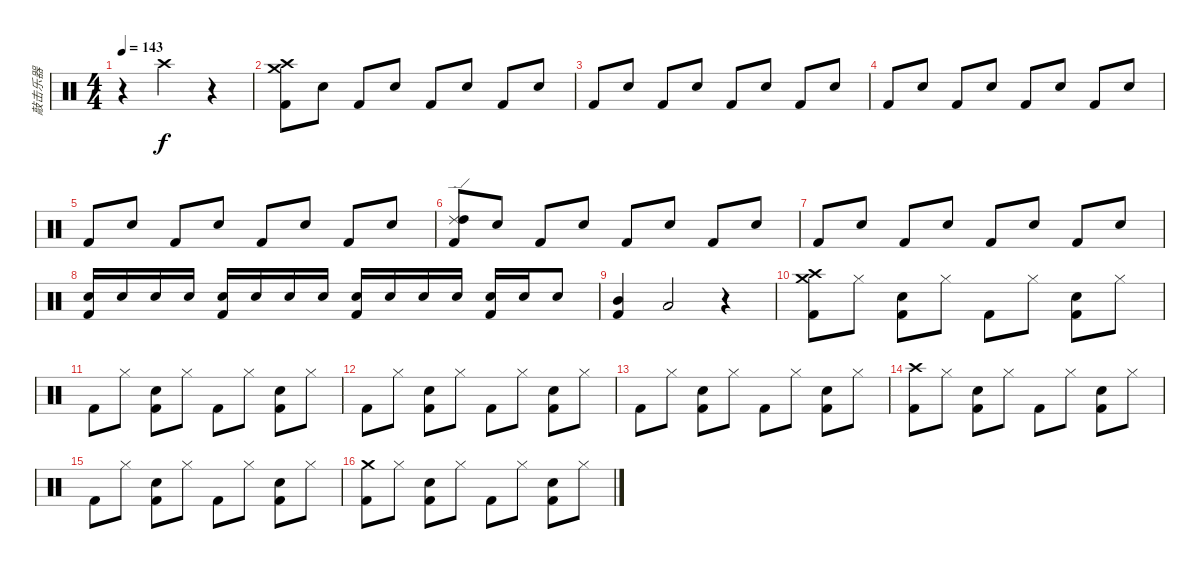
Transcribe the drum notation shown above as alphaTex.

\track ("敲击乐器" "敲击乐器") {instrument percussion}
\staff {score}
\articulation defaults
\ts (4 4)
\tempo 143
\clef neutral
\ks c
r.4{dy f volume 0} "Crash high (hit)".2{volume 13} r.4 |
("Crash high (hit)" "Crash medium (hit)" "Kick (hit) 2").8 "Electric Snare (hit)".8 "Kick (hit) 2".8 "Electric Snare (hit)".8 "Kick (hit) 2".8 "Electric Snare (hit)".8 "Kick (hit) 2".8 "Electric Snare (hit)".8 |
"Kick (hit) 2".8 "Electric Snare (hit)".8 "Kick (hit) 2".8 "Electric Snare (hit)".8 "Kick (hit) 2".8 "Electric Snare (hit)".8 "Kick (hit) 2".8 "Electric Snare (hit)".8 |
"Kick (hit) 2".8 "Electric Snare (hit)".8 "Kick (hit) 2".8 "Electric Snare (hit)".8 "Kick (hit) 2".8 "Electric Snare (hit)".8 "Kick (hit) 2".8 "Electric Snare (hit)".8 |
"Kick (hit) 2".8 "Electric Snare (hit)".8 "Kick (hit) 2".8 "Electric Snare (hit)".8 "Kick (hit) 2".8 "Electric Snare (hit)".8 "Kick (hit) 2".8 "Electric Snare (hit)".8 |
("Ride (edge) 2" "High Tom (hit)" "Kick (hit) 2").8 "Electric Snare (hit)".8 "Kick (hit) 2".8 "Electric Snare (hit)".8 "Kick (hit) 2".8 "Electric Snare (hit)".8 "Kick (hit) 2".8 "Electric Snare (hit)".8 |
"Kick (hit) 2".8 "Electric Snare (hit)".8 "Kick (hit) 2".8 "Electric Snare (hit)".8 "Kick (hit) 2".8 "Electric Snare (hit)".8 "Kick (hit) 2".8 "Electric Snare (hit)".8 |
("Electric Snare (hit)" "Kick (hit) 2").16 "Electric Snare (hit)".16 "Electric Snare (hit)".16 "Electric Snare (hit)".16 ("Electric Snare (hit)" "Kick (hit) 2").16 "Electric Snare (hit)".16 "Electric Snare (hit)".16 "Electric Snare (hit)".16 ("Electric Snare (hit)" "Kick (hit) 2").16 "Electric Snare (hit)".16 "Electric Snare (hit)".16 "Electric Snare (hit)".16 ("Electric Snare (hit)" "Kick (hit) 2").16 "Electric Snare (hit)".16 "Electric Snare (hit)".8 |
("Mid Tom (hit)" "Kick (hit) 2").4 "Low Floor Tom (hit)".2 r.4 |
("Crash high (hit)" "Crash medium (hit)" "Kick (hit) 2").8 "Hi-Hat (closed)".8 ("Electric Snare (hit)" "Kick (hit) 2").8 "Hi-Hat (closed)".8 "Kick (hit) 2".8 "Hi-Hat (closed)".8 ("Electric Snare (hit)" "Kick (hit) 2").8 "Hi-Hat (closed)".8 |
"Kick (hit) 2".8 "Hi-Hat (closed)".8 ("Electric Snare (hit)" "Kick (hit) 2").8 "Hi-Hat (closed)".8 "Kick (hit) 2".8 "Hi-Hat (closed)".8 ("Electric Snare (hit)" "Kick (hit) 2").8 "Hi-Hat (closed)".8 |
"Kick (hit) 2".8 "Hi-Hat (closed)".8 ("Electric Snare (hit)" "Kick (hit) 2").8 "Hi-Hat (closed)".8 "Kick (hit) 2".8 "Hi-Hat (closed)".8 ("Electric Snare (hit)" "Kick (hit) 2").8 "Hi-Hat (closed)".8 |
"Kick (hit) 2".8 "Hi-Hat (closed)".8 ("Electric Snare (hit)" "Kick (hit) 2").8 "Hi-Hat (closed)".8 "Kick (hit) 2".8 "Hi-Hat (closed)".8 ("Electric Snare (hit)" "Kick (hit) 2").8 "Hi-Hat (closed)".8 |
("Crash high (hit)" "Kick (hit) 2").8 "Hi-Hat (closed)".8 ("Electric Snare (hit)" "Kick (hit) 2").8 "Hi-Hat (closed)".8 "Kick (hit) 2".8 "Hi-Hat (closed)".8 ("Electric Snare (hit)" "Kick (hit) 2").8 "Hi-Hat (closed)".8 |
"Kick (hit) 2".8 "Hi-Hat (closed)".8 ("Electric Snare (hit)" "Kick (hit) 2").8 "Hi-Hat (closed)".8 "Kick (hit) 2".8 "Hi-Hat (closed)".8 ("Electric Snare (hit)" "Kick (hit) 2").8 "Hi-Hat (closed)".8 |
("Crash medium (hit)" "Kick (hit) 2").8 "Hi-Hat (closed)".8 ("Electric Snare (hit)" "Kick (hit) 2").8 "Hi-Hat (closed)".8 "Kick (hit) 2".8 "Hi-Hat (closed)".8 ("Electric Snare (hit)" "Kick (hit) 2").8 "Hi-Hat (closed)".8
